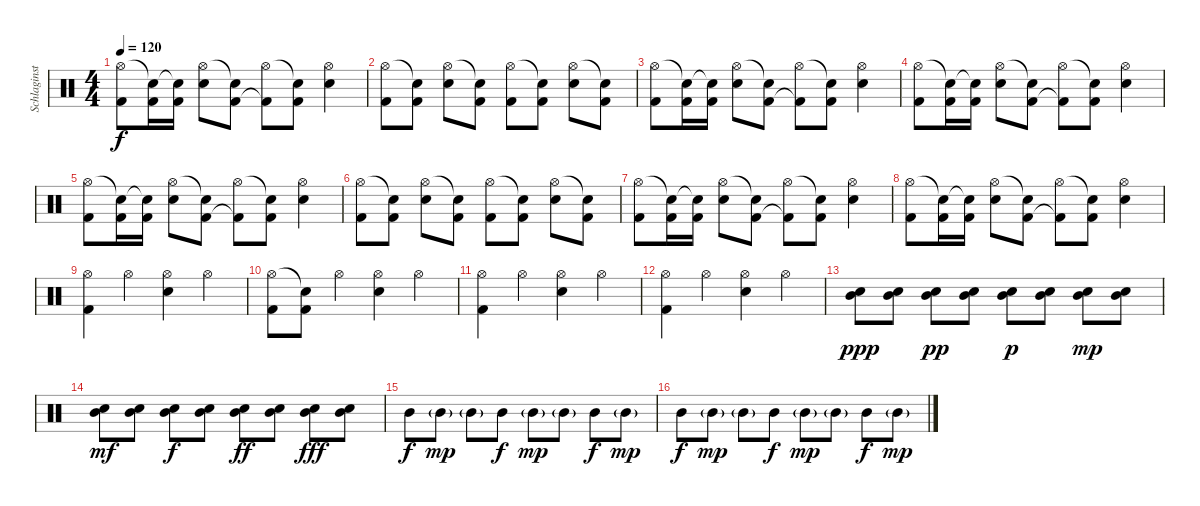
\track ("Schlaginstrumente - Auswahl" "Schlaginst") {instrument percussion}
\staff {score}
\articulation defaults
\ts (4 4)
\tempo 120
\clef neutral
\ks c
("Hi-Hat (open)" "Kick (hit) 2").8{dy f} ("Snare (hit)"{t} "Kick (hit) 2").16 ("Snare (hit)"{t} "Kick (hit) 2").16 ("Hi-Hat (open)" "Snare (hit) 2").8 ("Snare (hit)"{t} "Kick (hit) 2").8 ("Hi-Hat (open)" "Kick (hit) 2"{t}).8 ("Snare (hit)"{t} "Kick (hit) 2").8 ("Hi-Hat (open)" "Snare (hit) 2").4 |
("Hi-Hat (open)" "Kick (hit) 2").8 ("Snare (hit)"{t} "Kick (hit) 2").8 ("Hi-Hat (open)" "Snare (hit) 2").8 ("Snare (hit)"{t} "Kick (hit) 2").8 ("Hi-Hat (open)" "Kick (hit) 2").8 ("Snare (hit)"{t} "Kick (hit) 2").8 ("Hi-Hat (open)" "Snare (hit) 2").8 ("Snare (hit)"{t} "Kick (hit) 2").8 |
("Hi-Hat (open)" "Kick (hit) 2").8 ("Snare (hit)"{t} "Kick (hit) 2").16 ("Snare (hit)"{t} "Kick (hit) 2").16 ("Hi-Hat (open)" "Snare (hit) 2").8 ("Snare (hit)"{t} "Kick (hit) 2").8 ("Hi-Hat (open)" "Kick (hit) 2"{t}).8 ("Snare (hit)"{t} "Kick (hit) 2").8 ("Hi-Hat (open)" "Snare (hit) 2").4 |
("Hi-Hat (open)" "Kick (hit) 2").8 ("Snare (hit)"{t} "Kick (hit) 2").16 ("Snare (hit)"{t} "Kick (hit) 2").16 ("Hi-Hat (open)" "Snare (hit) 2").8 ("Snare (hit)"{t} "Kick (hit) 2").8 ("Hi-Hat (open)" "Kick (hit) 2"{t}).8 ("Snare (hit)"{t} "Kick (hit) 2").8 ("Hi-Hat (open)" "Snare (hit) 2").4 |
("Hi-Hat (open)" "Kick (hit) 2").8 ("Snare (hit)"{t} "Kick (hit) 2").16 ("Snare (hit)"{t} "Kick (hit) 2").16 ("Hi-Hat (open)" "Snare (hit) 2").8 ("Snare (hit)"{t} "Kick (hit) 2").8 ("Hi-Hat (open)" "Kick (hit) 2"{t}).8 ("Snare (hit)"{t} "Kick (hit) 2").8 ("Hi-Hat (open)" "Snare (hit) 2").4 |
("Hi-Hat (open)" "Kick (hit) 2").8 ("Snare (hit)"{t} "Kick (hit) 2").8 ("Hi-Hat (open)" "Snare (hit) 2").8 ("Snare (hit)"{t} "Kick (hit) 2").8 ("Hi-Hat (open)" "Kick (hit) 2").8 ("Snare (hit)"{t} "Kick (hit) 2").8 ("Hi-Hat (open)" "Snare (hit) 2").8 ("Snare (hit)"{t} "Kick (hit) 2").8 |
("Hi-Hat (open)" "Kick (hit) 2").8 ("Snare (hit)"{t} "Kick (hit) 2").16 ("Snare (hit)"{t} "Kick (hit) 2").16 ("Hi-Hat (open)" "Snare (hit) 2").8 ("Snare (hit)"{t} "Kick (hit) 2").8 ("Hi-Hat (open)" "Kick (hit) 2"{t}).8 ("Snare (hit)"{t} "Kick (hit) 2").8 ("Hi-Hat (open)" "Snare (hit) 2").4 |
("Hi-Hat (open)" "Kick (hit) 2").8 ("Snare (hit)"{t} "Kick (hit) 2").16 ("Snare (hit)"{t} "Kick (hit) 2").16 ("Hi-Hat (open)" "Snare (hit) 2").8 ("Snare (hit)"{t} "Kick (hit) 2").8 ("Hi-Hat (open)" "Kick (hit) 2"{t}).8 ("Snare (hit)"{t} "Kick (hit) 2").8 ("Hi-Hat (open)" "Snare (hit) 2").4 |
("Hi-Hat (open)" "Kick (hit) 2").4 "Hi-Hat (open)".4 ("Hi-Hat (open)" "Snare (hit) 2").4 "Hi-Hat (open)".4 |
("Hi-Hat (open)" "Kick (hit) 2").8 ("Snare (hit)"{t} "Kick (hit) 2").8 "Hi-Hat (open)".4 ("Hi-Hat (open)" "Snare (hit) 2").4 "Hi-Hat (open)".4 |
("Hi-Hat (open)" "Kick (hit) 2").4 "Hi-Hat (open)".4 ("Hi-Hat (open)" "Snare (hit) 2").4 "Hi-Hat (open)".4 |
("Hi-Hat (open)" "Kick (hit) 2").4 "Hi-Hat (open)".4 ("Hi-Hat (open)" "Snare (hit) 2").4 "Hi-Hat (open)".4 |
("Mid Tom (hit)" "Snare (hit) 2").8{dy ppp} ("Mid Tom (hit)" "Snare (hit) 2").8 ("Mid Tom (hit)" "Snare (hit) 2").8{dy pp} ("Mid Tom (hit)" "Snare (hit) 2").8 ("Mid Tom (hit)" "Snare (hit) 2").8{dy p} ("Mid Tom (hit)" "Snare (hit) 2").8 ("Mid Tom (hit)" "Snare (hit) 2").8{dy mp} ("Mid Tom (hit)" "Snare (hit) 2").8 |
("Mid Tom (hit)" "Snare (hit) 2").8{dy mf} ("Mid Tom (hit)" "Snare (hit) 2").8 ("Mid Tom (hit)" "Snare (hit) 2").8{dy f} ("Mid Tom (hit)" "Snare (hit) 2").8 ("Mid Tom (hit)" "Snare (hit) 2").8{dy ff} ("Mid Tom (hit)" "Snare (hit) 2").8 ("Mid Tom (hit)" "Snare (hit) 2").8{dy fff} ("Mid Tom (hit)" "Snare (hit) 2").8 |
"Mid Tom (hit)".8{dy f} "Mid Tom (hit)"{g}.8{dy mp} "Mid Tom (hit)"{g}.8 "Mid Tom (hit)".8{dy f} "Mid Tom (hit)"{g}.8{dy mp} "Mid Tom (hit)"{g}.8 "Mid Tom (hit)".8{dy f} "Mid Tom (hit)"{g}.8{dy mp} |
"Mid Tom (hit)".8{dy f} "Mid Tom (hit)"{g}.8{dy mp} "Mid Tom (hit)"{g}.8 "Mid Tom (hit)".8{dy f} "Mid Tom (hit)"{g}.8{dy mp} "Mid Tom (hit)"{g}.8 "Mid Tom (hit)".8{dy f} "Mid Tom (hit)"{g}.8{dy mp}
